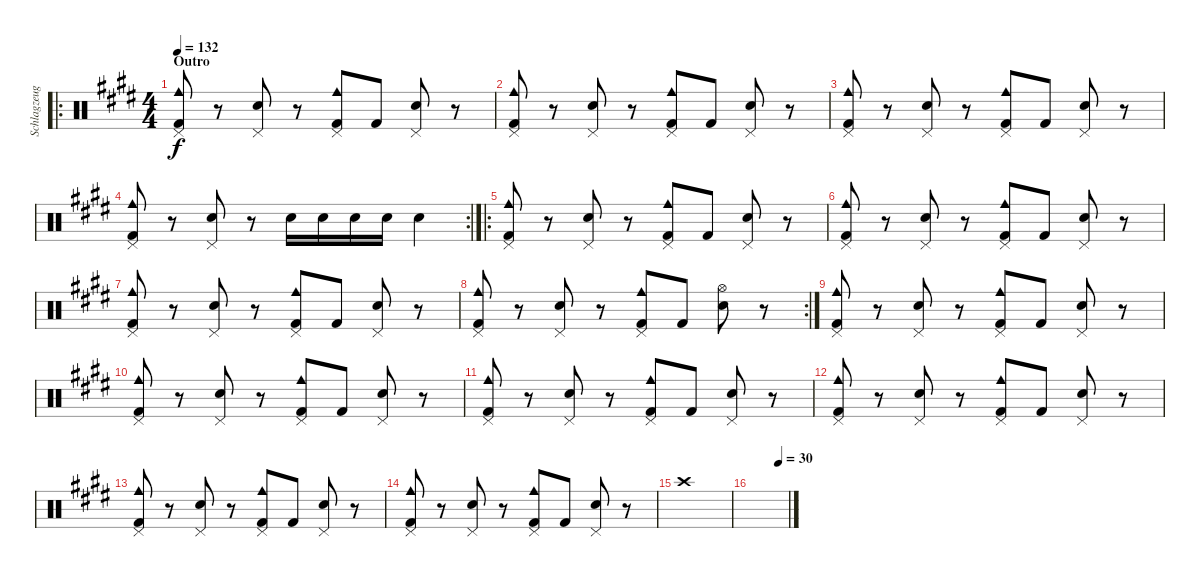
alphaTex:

\track ("Schlagzeug" "Schlagzeug") {instrument percussion}
\staff {score}
\articulation defaults
\ro
\ts (4 4)
\section ("" "Outro")
\tempo 132
\clef neutral
\ks e
("Pedal Hi-Hat (hit)" "Kick (hit) 2" "Cowbell medium (hit)").8{dy f} r.8 ("Pedal Hi-Hat (hit)" "Snare (hit) 2").8 r.8 ("Pedal Hi-Hat (hit)" "Kick (hit) 2" "Cowbell medium (hit)").8 "Kick (hit) 2".8 ("Pedal Hi-Hat (hit)" "Snare (hit) 2").8 r.8 |
("Pedal Hi-Hat (hit)" "Kick (hit) 2" "Cowbell medium (hit)").8 r.8 ("Pedal Hi-Hat (hit)" "Snare (hit) 2").8 r.8 ("Pedal Hi-Hat (hit)" "Kick (hit) 2" "Cowbell medium (hit)").8 "Kick (hit) 2".8 ("Pedal Hi-Hat (hit)" "Snare (hit) 2").8 r.8 |
("Pedal Hi-Hat (hit)" "Kick (hit) 2" "Cowbell medium (hit)").8 r.8 ("Pedal Hi-Hat (hit)" "Snare (hit) 2").8 r.8 ("Pedal Hi-Hat (hit)" "Kick (hit) 2" "Cowbell medium (hit)").8 "Kick (hit) 2".8 ("Pedal Hi-Hat (hit)" "Snare (hit) 2").8 r.8 |
\rc 2
("Pedal Hi-Hat (hit)" "Kick (hit) 2" "Cowbell medium (hit)").8 r.8 ("Pedal Hi-Hat (hit)" "Snare (hit) 2").8 r.8 "Snare (hit) 2".16 "Snare (hit) 2".16 "Snare (hit) 2".16 "Snare (hit) 2".16 "Snare (hit) 2".4 |
\ro
("Pedal Hi-Hat (hit)" "Kick (hit) 2" "Cowbell medium (hit)").8 r.8 ("Pedal Hi-Hat (hit)" "Snare (hit) 2").8 r.8 ("Pedal Hi-Hat (hit)" "Kick (hit) 2" "Cowbell medium (hit)").8 "Kick (hit) 2".8 ("Pedal Hi-Hat (hit)" "Snare (hit) 2").8 r.8 |
("Pedal Hi-Hat (hit)" "Kick (hit) 2" "Cowbell medium (hit)").8 r.8 ("Pedal Hi-Hat (hit)" "Snare (hit) 2").8 r.8 ("Pedal Hi-Hat (hit)" "Kick (hit) 2" "Cowbell medium (hit)").8 "Kick (hit) 2".8 ("Pedal Hi-Hat (hit)" "Snare (hit) 2").8 r.8 |
("Pedal Hi-Hat (hit)" "Kick (hit) 2" "Cowbell medium (hit)").8 r.8 ("Pedal Hi-Hat (hit)" "Snare (hit) 2").8 r.8 ("Pedal Hi-Hat (hit)" "Kick (hit) 2" "Cowbell medium (hit)").8 "Kick (hit) 2".8 ("Pedal Hi-Hat (hit)" "Snare (hit) 2").8 r.8 |
\rc 2
("Pedal Hi-Hat (hit)" "Kick (hit) 2" "Cowbell medium (hit)").8 r.8 ("Pedal Hi-Hat (hit)" "Snare (hit) 2").8 r.8 ("Pedal Hi-Hat (hit)" "Kick (hit) 2" "Cowbell medium (hit)").8 "Kick (hit) 2".8 ("Hi-Hat (open)" "Snare (hit) 2").8 r.8 |
("Pedal Hi-Hat (hit)" "Kick (hit) 2" "Cowbell medium (hit)").8 r.8 ("Pedal Hi-Hat (hit)" "Snare (hit) 2").8 r.8 ("Pedal Hi-Hat (hit)" "Kick (hit) 2" "Cowbell medium (hit)").8 "Kick (hit) 2".8 ("Pedal Hi-Hat (hit)" "Snare (hit) 2").8 r.8 |
("Pedal Hi-Hat (hit)" "Kick (hit) 2" "Cowbell medium (hit)").8 r.8 ("Pedal Hi-Hat (hit)" "Snare (hit) 2").8 r.8 ("Pedal Hi-Hat (hit)" "Kick (hit) 2" "Cowbell medium (hit)").8 "Kick (hit) 2".8 ("Pedal Hi-Hat (hit)" "Snare (hit) 2").8 r.8 |
("Pedal Hi-Hat (hit)" "Kick (hit) 2" "Cowbell medium (hit)").8 r.8 ("Pedal Hi-Hat (hit)" "Snare (hit) 2").8 r.8 ("Pedal Hi-Hat (hit)" "Kick (hit) 2" "Cowbell medium (hit)").8 "Kick (hit) 2".8 ("Pedal Hi-Hat (hit)" "Snare (hit) 2").8 r.8 |
("Pedal Hi-Hat (hit)" "Kick (hit) 2" "Cowbell medium (hit)").8 r.8 ("Pedal Hi-Hat (hit)" "Snare (hit) 2").8 r.8 ("Pedal Hi-Hat (hit)" "Kick (hit) 2" "Cowbell medium (hit)").8 "Kick (hit) 2".8 ("Pedal Hi-Hat (hit)" "Snare (hit) 2").8 r.8 |
("Pedal Hi-Hat (hit)" "Kick (hit) 2" "Cowbell medium (hit)").8 r.8 ("Pedal Hi-Hat (hit)" "Snare (hit) 2").8 r.8 ("Pedal Hi-Hat (hit)" "Kick (hit) 2" "Cowbell medium (hit)").8 "Kick (hit) 2".8 ("Pedal Hi-Hat (hit)" "Snare (hit) 2").8 r.8 |
("Pedal Hi-Hat (hit)" "Kick (hit) 2" "Cowbell medium (hit)").8 r.8 ("Pedal Hi-Hat (hit)" "Snare (hit) 2").8 r.8 ("Pedal Hi-Hat (hit)" "Kick (hit) 2" "Cowbell medium (hit)").8 "Kick (hit) 2".8 ("Pedal Hi-Hat (hit)" "Snare (hit) 2").8 r.8 |
"Crash high (hit)".1 |
\tempo (30 0.75)
